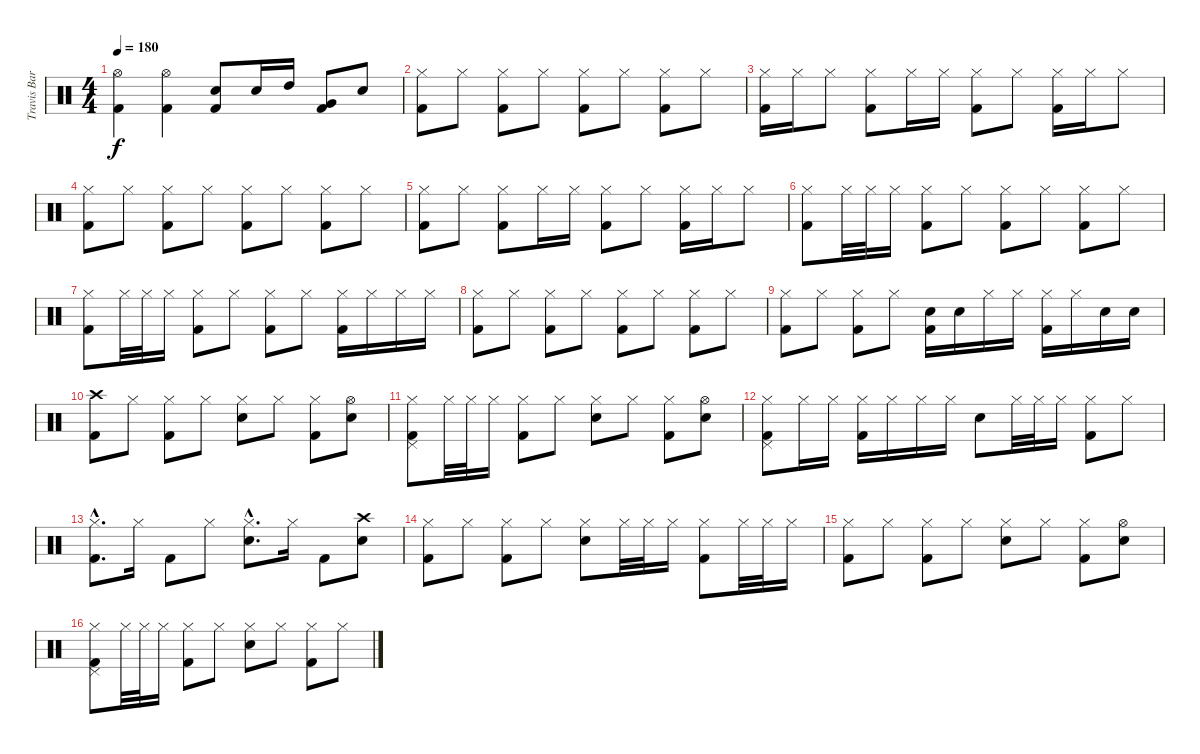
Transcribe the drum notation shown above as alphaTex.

\track ("Travis Barker" "Travis Bar") {instrument percussion}
\staff {score}
\articulation defaults
\ts (4 4)
\tempo 180
\clef neutral
\ks c
("Hi-Hat (open)" "Kick (hit) 2").4{dy f} ("Hi-Hat (open)" "Kick (hit) 2").4 ("Electric Snare (hit)" "Kick (hit) 2").8 "Electric Snare (hit)".16 "High Tom (hit)".16 ("Kick (hit) 2" "Very Low Tom (hit)").8 "Electric Snare (hit)".8 |
("Hi-Hat (closed)" "Kick (hit) 2").8 "Hi-Hat (closed)".8 ("Hi-Hat (closed)" "Kick (hit) 2").8 "Hi-Hat (closed)".8 ("Hi-Hat (closed)" "Kick (hit) 2").8 "Hi-Hat (closed)".8 ("Hi-Hat (closed)" "Kick (hit) 2").8 "Hi-Hat (closed)".8 |
("Hi-Hat (closed)" "Kick (hit) 2").16 "Hi-Hat (closed)".16 "Hi-Hat (closed)".8 ("Hi-Hat (closed)" "Kick (hit) 2").8 "Hi-Hat (closed)".16 "Hi-Hat (closed)".16 ("Hi-Hat (closed)" "Kick (hit) 2").8 "Hi-Hat (closed)".8 ("Hi-Hat (closed)" "Kick (hit) 2").16 "Hi-Hat (closed)".16 "Hi-Hat (closed)".8 |
("Hi-Hat (closed)" "Kick (hit) 2").8 "Hi-Hat (closed)".8 ("Hi-Hat (closed)" "Kick (hit) 2").8 "Hi-Hat (closed)".8 ("Hi-Hat (closed)" "Kick (hit) 2").8 "Hi-Hat (closed)".8 ("Hi-Hat (closed)" "Kick (hit) 2").8 "Hi-Hat (closed)".8 |
("Hi-Hat (closed)" "Kick (hit) 2").8 "Hi-Hat (closed)".8 ("Hi-Hat (closed)" "Kick (hit) 2").8 "Hi-Hat (closed)".16 "Hi-Hat (closed)".16 ("Hi-Hat (closed)" "Kick (hit) 2").8 "Hi-Hat (closed)".8 ("Hi-Hat (closed)" "Kick (hit) 2").16 "Hi-Hat (closed)".16 "Hi-Hat (closed)".8 |
("Hi-Hat (closed)" "Kick (hit) 2").8 "Hi-Hat (closed)".32 "Hi-Hat (closed)".32 "Hi-Hat (closed)".16 ("Hi-Hat (closed)" "Kick (hit) 2").8 "Hi-Hat (closed)".8 ("Hi-Hat (closed)" "Kick (hit) 2").8 "Hi-Hat (closed)".8 ("Hi-Hat (closed)" "Kick (hit) 2").8 "Hi-Hat (closed)".8 |
("Hi-Hat (closed)" "Kick (hit) 2").8 "Hi-Hat (closed)".32 "Hi-Hat (closed)".32 "Hi-Hat (closed)".16 ("Hi-Hat (closed)" "Kick (hit) 2").8 "Hi-Hat (closed)".8 ("Hi-Hat (closed)" "Kick (hit) 2").8 "Hi-Hat (closed)".8 ("Hi-Hat (closed)" "Kick (hit) 2").16 "Hi-Hat (closed)".16 "Hi-Hat (closed)".16 "Hi-Hat (closed)".16 |
("Hi-Hat (closed)" "Kick (hit) 2").8 "Hi-Hat (closed)".8 ("Hi-Hat (closed)" "Kick (hit) 2").8 "Hi-Hat (closed)".8 ("Hi-Hat (closed)" "Kick (hit) 2").8 "Hi-Hat (closed)".8 ("Hi-Hat (closed)" "Kick (hit) 2").8 "Hi-Hat (closed)".8 |
("Hi-Hat (closed)" "Kick (hit) 2").8 "Hi-Hat (closed)".8 ("Hi-Hat (closed)" "Kick (hit) 2").8 "Hi-Hat (closed)".8 ("Electric Snare (hit)" "Kick (hit) 2").16 "Electric Snare (hit)".16 "Hi-Hat (closed)".16 "Hi-Hat (closed)".16 ("Hi-Hat (closed)" "Kick (hit) 2").16 "Hi-Hat (closed)".16 "Electric Snare (hit)".16 "Electric Snare (hit)".16 |
("Crash high (hit)" "Kick (hit) 2").8 "Hi-Hat (closed)".8 ("Hi-Hat (closed)" "Kick (hit) 2").8 "Hi-Hat (closed)".8 ("Hi-Hat (closed)" "Electric Snare (hit)").8 "Hi-Hat (closed)".8 ("Hi-Hat (closed)" "Kick (hit) 2").8 ("Hi-Hat (open)" "Electric Snare (hit)").8 |
("Hi-Hat (closed)" "Kick (hit) 2" "Pedal Hi-Hat (hit)").8 "Hi-Hat (closed)".32 "Hi-Hat (closed)".32 "Hi-Hat (closed)".16 ("Hi-Hat (closed)" "Kick (hit) 2").8 "Hi-Hat (closed)".8 ("Hi-Hat (closed)" "Electric Snare (hit)").8 "Hi-Hat (closed)".8 ("Hi-Hat (closed)" "Kick (hit) 2").8 ("Hi-Hat (open)" "Electric Snare (hit)").8 |
("Hi-Hat (closed)" "Kick (hit) 2" "Pedal Hi-Hat (hit)").8 "Hi-Hat (closed)".16 "Hi-Hat (closed)".16 ("Hi-Hat (closed)" "Kick (hit) 2").16 "Hi-Hat (closed)".16 "Hi-Hat (closed)".16 "Hi-Hat (closed)".16 "Electric Snare (hit)".8 "Hi-Hat (closed)".32 "Hi-Hat (closed)".32 "Hi-Hat (closed)".16 ("Hi-Hat (closed)" "Kick (hit) 2").8 "Hi-Hat (closed)".8 |
("Hi-Hat (closed)"{hac} "Kick (hit) 2"{hac}).8{d} "Hi-Hat (closed)".16 "Kick (hit) 2".8 "Hi-Hat (closed)".8 ("Hi-Hat (closed)"{hac} "Electric Snare (hit)"{hac}).8{d} "Hi-Hat (closed)".16 "Kick (hit) 2".8 ("Crash high (hit)" "Electric Snare (hit)").8 |
("Hi-Hat (closed)" "Kick (hit) 2").8 "Hi-Hat (closed)".8 ("Hi-Hat (closed)" "Kick (hit) 2").8 "Hi-Hat (closed)".8 ("Hi-Hat (closed)" "Electric Snare (hit)").8 "Hi-Hat (closed)".32 "Hi-Hat (closed)".32 "Hi-Hat (closed)".16 ("Hi-Hat (closed)" "Kick (hit) 2").8 "Hi-Hat (closed)".32 "Hi-Hat (closed)".32 "Hi-Hat (closed)".16 |
("Hi-Hat (closed)" "Kick (hit) 2").8 "Hi-Hat (closed)".8 ("Hi-Hat (closed)" "Kick (hit) 2").8 "Hi-Hat (closed)".8 ("Hi-Hat (closed)" "Electric Snare (hit)").8 "Hi-Hat (closed)".8 ("Hi-Hat (closed)" "Kick (hit) 2").8 ("Hi-Hat (open)" "Electric Snare (hit)").8 |
("Hi-Hat (closed)" "Kick (hit) 2" "Pedal Hi-Hat (hit)").8 "Hi-Hat (closed)".32 "Hi-Hat (closed)".32 "Hi-Hat (closed)".16 ("Hi-Hat (closed)" "Kick (hit) 2").8 "Hi-Hat (closed)".8 ("Hi-Hat (closed)" "Electric Snare (hit)").8 "Hi-Hat (closed)".8 ("Hi-Hat (closed)" "Kick (hit) 2").8 "Hi-Hat (closed)".8
